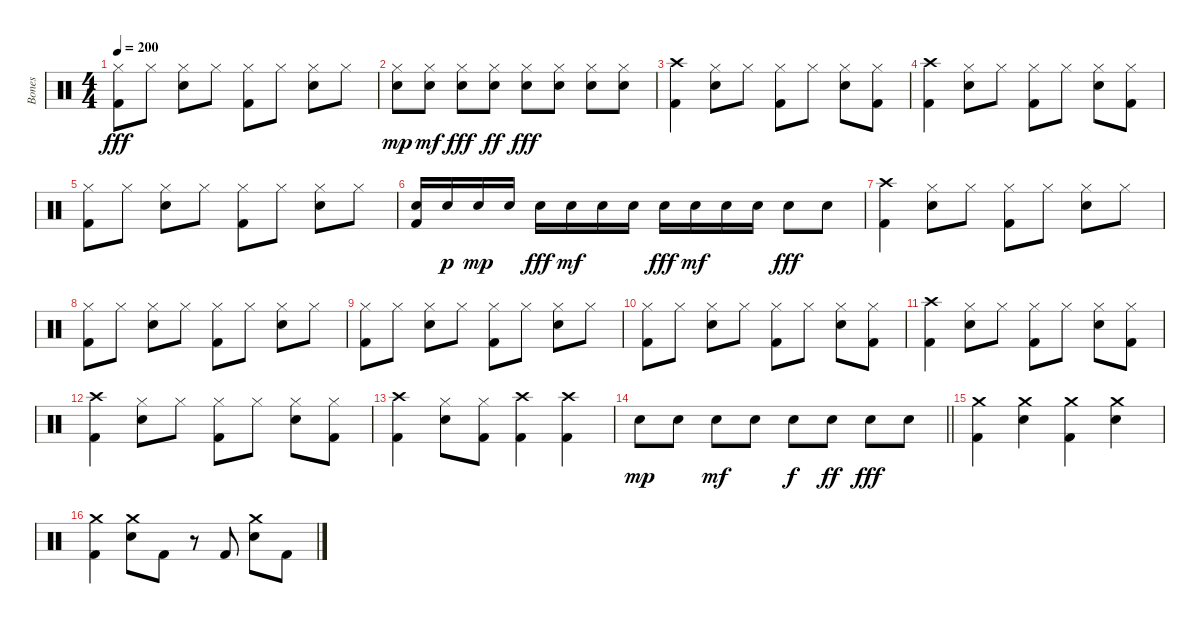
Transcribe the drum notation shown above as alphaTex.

\track ("Bones " "Bones ") {instrument percussion}
\staff {score}
\articulation defaults
\ts (4 4)
\tempo 200
\clef neutral
\ks c
("Hi-Hat (closed)" "Kick (hit) 2").8{dy fff} "Hi-Hat (closed)".8 ("Hi-Hat (closed)" "Snare (hit) 2").8 "Hi-Hat (closed)".8 ("Hi-Hat (closed)" "Kick (hit) 2").8 "Hi-Hat (closed)".8 ("Hi-Hat (closed)" "Snare (hit) 2").8 "Hi-Hat (closed)".8 |
("Hi-Hat (closed)" "Snare (hit) 2").8{dy mp} ("Hi-Hat (closed)" "Snare (hit) 2").8{dy mf} ("Hi-Hat (closed)" "Snare (hit) 2").8{dy fff} ("Hi-Hat (closed)" "Snare (hit) 2").8{dy ff} ("Hi-Hat (closed)" "Snare (hit) 2").8{dy fff} ("Hi-Hat (closed)" "Snare (hit) 2").8 ("Hi-Hat (closed)" "Snare (hit) 2").8 ("Hi-Hat (closed)" "Snare (hit) 2").8 |
("Crash high (hit)" "Kick (hit) 2").4 ("Hi-Hat (closed)" "Snare (hit) 2").8 "Hi-Hat (closed)".8 ("Hi-Hat (closed)" "Kick (hit) 2").8 "Hi-Hat (closed)".8 ("Hi-Hat (closed)" "Snare (hit) 2").8 ("Hi-Hat (closed)" "Kick (hit) 2").8 |
("Crash high (hit)" "Kick (hit) 2").4 ("Hi-Hat (closed)" "Snare (hit) 2").8 "Hi-Hat (closed)".8 ("Hi-Hat (closed)" "Kick (hit) 2").8 "Hi-Hat (closed)".8 ("Hi-Hat (closed)" "Snare (hit) 2").8 ("Hi-Hat (closed)" "Kick (hit) 2").8 |
("Hi-Hat (closed)" "Kick (hit) 2").8 "Hi-Hat (closed)".8 ("Hi-Hat (closed)" "Snare (hit) 2").8 "Hi-Hat (closed)".8 ("Hi-Hat (closed)" "Kick (hit) 2").8 "Hi-Hat (closed)".8 ("Hi-Hat (closed)" "Snare (hit) 2").8 "Hi-Hat (closed)".8 |
("Snare (hit) 2" "Kick (hit) 2").16 "Snare (hit) 2".16{dy p} "Snare (hit) 2".16{dy mp} "Snare (hit) 2".16 "Snare (hit) 2".16{dy fff} "Snare (hit) 2".16{dy mf} "Snare (hit) 2".16 "Snare (hit) 2".16 "Snare (hit) 2".16{dy fff} "Snare (hit) 2".16{dy mf} "Snare (hit) 2".16 "Snare (hit) 2".16 "Snare (hit) 2".8{dy fff} "Snare (hit) 2".8 |
("Crash high (hit)" "Kick (hit) 2").4 ("Hi-Hat (closed)" "Snare (hit) 2").8 "Hi-Hat (closed)".8 ("Hi-Hat (closed)" "Kick (hit) 2").8 "Hi-Hat (closed)".8 ("Hi-Hat (closed)" "Snare (hit) 2").8 "Hi-Hat (closed)".8 |
("Hi-Hat (closed)" "Kick (hit) 2").8 "Hi-Hat (closed)".8 ("Hi-Hat (closed)" "Snare (hit) 2").8 "Hi-Hat (closed)".8 ("Hi-Hat (closed)" "Kick (hit) 2").8 "Hi-Hat (closed)".8 ("Hi-Hat (closed)" "Snare (hit) 2").8 "Hi-Hat (closed)".8 |
("Hi-Hat (closed)" "Kick (hit) 2").8 "Hi-Hat (closed)".8 ("Hi-Hat (closed)" "Snare (hit) 2").8 "Hi-Hat (closed)".8 ("Hi-Hat (closed)" "Kick (hit) 2").8 "Hi-Hat (closed)".8 ("Hi-Hat (closed)" "Snare (hit) 2").8 "Hi-Hat (closed)".8 |
("Hi-Hat (closed)" "Kick (hit) 2").8 "Hi-Hat (closed)".8 ("Hi-Hat (closed)" "Snare (hit) 2").8 "Hi-Hat (closed)".8 ("Hi-Hat (closed)" "Kick (hit) 2").8 "Hi-Hat (closed)".8 ("Hi-Hat (closed)" "Snare (hit) 2").8 ("Hi-Hat (closed)" "Kick (hit) 2").8 |
("Crash high (hit)" "Kick (hit) 2").4 ("Hi-Hat (closed)" "Snare (hit) 2").8 "Hi-Hat (closed)".8 ("Hi-Hat (closed)" "Kick (hit) 2").8 "Hi-Hat (closed)".8 ("Hi-Hat (closed)" "Snare (hit) 2").8 ("Hi-Hat (closed)" "Kick (hit) 2").8 |
("Crash high (hit)" "Kick (hit) 2").4 ("Hi-Hat (closed)" "Snare (hit) 2").8 "Hi-Hat (closed)".8 ("Hi-Hat (closed)" "Kick (hit) 2").8 "Hi-Hat (closed)".8 ("Hi-Hat (closed)" "Snare (hit) 2").8 ("Hi-Hat (closed)" "Kick (hit) 2").8 |
("Crash high (hit)" "Kick (hit) 2").4 ("Hi-Hat (closed)" "Snare (hit) 2").8 ("Hi-Hat (closed)" "Kick (hit) 2").8 ("Crash high (hit)" "Kick (hit) 2").4 ("Crash high (hit)" "Kick (hit) 2").4 |
\barLineRight lightlight "Snare (hit) 2".8{dy mp} "Snare (hit) 2".8 "Snare (hit) 2".8{dy mf} "Snare (hit) 2".8 "Snare (hit) 2".8{dy f} "Snare (hit) 2".8{dy ff} "Snare (hit) 2".8{dy fff} "Snare (hit) 2".8
|
("Crash medium (hit)" "Kick (hit) 2").4 ("Crash medium (hit)" "Snare (hit) 2").4 ("Crash medium (hit)" "Kick (hit) 2").4 ("Crash medium (hit)" "Snare (hit) 2").4 |
("Crash medium (hit)" "Kick (hit) 2").4 ("Crash medium (hit)" "Snare (hit) 2").8 "Kick (hit) 2".8 r.8 "Kick (hit) 2".8 ("Crash medium (hit)" "Snare (hit) 2").8 "Kick (hit) 2".8
